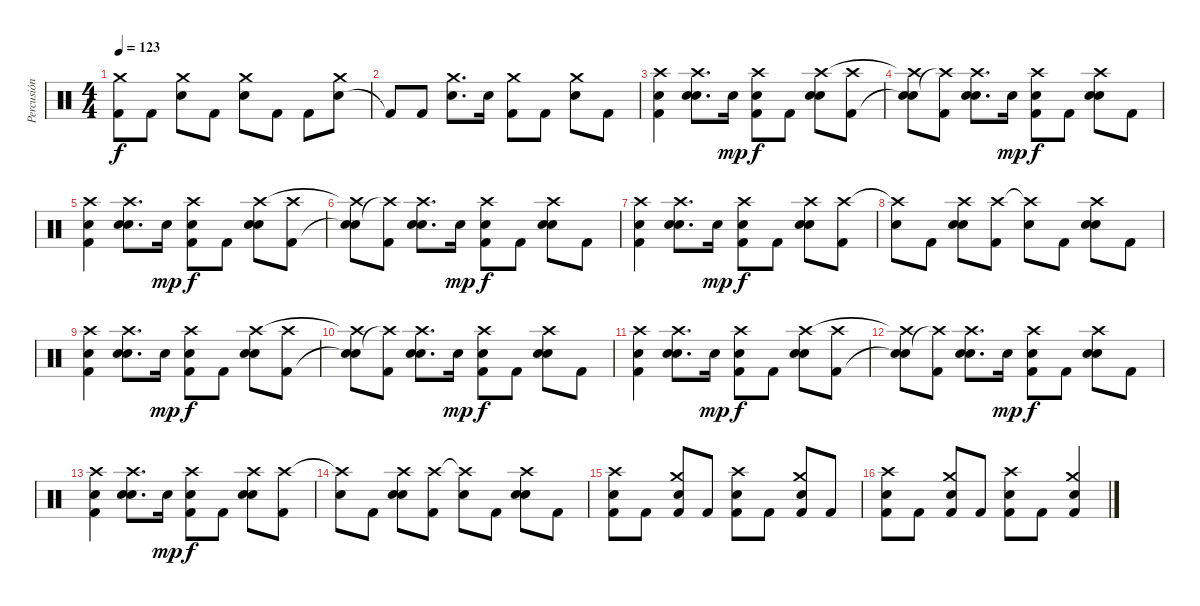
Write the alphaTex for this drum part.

\track ("Percusión" "Percusión") {instrument percussion}
\staff {score}
\articulation defaults
\ts (4 4)
\tempo 123
\clef neutral
\ks c
("Kick (hit) 2" "Crash medium (hit)").8{dy f} "Kick (hit) 2".8 ("Snare (hit) 2" "Crash medium (hit)").8 "Kick (hit) 2".8 ("Snare (hit) 2" "Crash medium (hit)").8 "Kick (hit) 2".8 "Kick (hit) 2".8 ("Snare (hit) 2" "Crash medium (hit)").8 |
"Kick (hit) 2"{t}.8 "Kick (hit) 2".8 ("Snare (hit) 2" "Crash medium (hit)").8{d} "Snare (hit) 2".16 ("Kick (hit) 2" "Crash medium (hit)").8 "Kick (hit) 2".8 ("Snare (hit) 2" "Crash medium (hit)").8 "Kick (hit) 2".8 |
("Metronome (bell)" "Kick (hit) 2" "Crash high (hit)").4 ("Snare (hit) 2" "Metronome (bell)" "Crash high (hit)").8{d} "Snare (hit) 2".16{dy mp} ("Metronome (bell)" "Kick (hit) 2" "Crash high (hit)").8{dy f} "Kick (hit) 2".8 ("Snare (hit) 2" "Metronome (bell)" "Crash high (hit)").8 ("Kick (hit) 2" "Crash high (hit)").8 |
("Metronome (bell)"{t} "Metronome (bell)" "Crash high (hit)"{t}).8 ("Kick (hit) 2" "Crash high (hit)"{t}).8 ("Snare (hit) 2" "Metronome (bell)" "Crash high (hit)").8{d} "Snare (hit) 2".16{dy mp} ("Metronome (bell)" "Kick (hit) 2" "Crash high (hit)").8{dy f} "Kick (hit) 2".8 ("Snare (hit) 2" "Metronome (bell)" "Crash high (hit)").8 "Kick (hit) 2".8 |
("Metronome (bell)" "Kick (hit) 2" "Crash high (hit)").4 ("Snare (hit) 2" "Metronome (bell)" "Crash high (hit)").8{d} "Snare (hit) 2".16{dy mp} ("Metronome (bell)" "Kick (hit) 2" "Crash high (hit)").8{dy f} "Kick (hit) 2".8 ("Snare (hit) 2" "Metronome (bell)" "Crash high (hit)").8 ("Kick (hit) 2" "Crash high (hit)").8 |
("Metronome (bell)"{t} "Metronome (bell)" "Crash high (hit)"{t}).8 ("Kick (hit) 2" "Crash high (hit)"{t}).8 ("Snare (hit) 2" "Metronome (bell)" "Crash high (hit)").8{d} "Snare (hit) 2".16{dy mp} ("Metronome (bell)" "Kick (hit) 2" "Crash high (hit)").8{dy f} "Kick (hit) 2".8 ("Snare (hit) 2" "Metronome (bell)" "Crash high (hit)").8 "Kick (hit) 2".8 |
("Metronome (bell)" "Kick (hit) 2" "Crash high (hit)").4 ("Snare (hit) 2" "Metronome (bell)" "Crash high (hit)").8{d} "Snare (hit) 2".16{dy mp} ("Metronome (bell)" "Kick (hit) 2" "Crash high (hit)").8{dy f} "Kick (hit) 2".8 ("Snare (hit) 2" "Metronome (bell)" "Crash high (hit)").8 ("Kick (hit) 2" "Crash high (hit)").8 |
("Metronome (bell)" "Crash high (hit)"{t}).8 "Kick (hit) 2".8 ("Snare (hit) 2" "Metronome (bell)" "Crash high (hit)").8 ("Kick (hit) 2" "Crash high (hit)").8 ("Metronome (bell)" "Crash high (hit)"{t}).8 "Kick (hit) 2".8 ("Snare (hit) 2" "Metronome (bell)" "Crash high (hit)").8 "Kick (hit) 2".8 |
("Metronome (bell)" "Kick (hit) 2" "Crash high (hit)").4 ("Snare (hit) 2" "Metronome (bell)" "Crash high (hit)").8{d} "Snare (hit) 2".16{dy mp} ("Metronome (bell)" "Kick (hit) 2" "Crash high (hit)").8{dy f} "Kick (hit) 2".8 ("Snare (hit) 2" "Metronome (bell)" "Crash high (hit)").8 ("Kick (hit) 2" "Crash high (hit)").8 |
("Metronome (bell)"{t} "Metronome (bell)" "Crash high (hit)"{t}).8 ("Kick (hit) 2" "Crash high (hit)"{t}).8 ("Snare (hit) 2" "Metronome (bell)" "Crash high (hit)").8{d} "Snare (hit) 2".16{dy mp} ("Metronome (bell)" "Kick (hit) 2" "Crash high (hit)").8{dy f} "Kick (hit) 2".8 ("Snare (hit) 2" "Metronome (bell)" "Crash high (hit)").8 "Kick (hit) 2".8 |
("Metronome (bell)" "Kick (hit) 2" "Crash high (hit)").4 ("Snare (hit) 2" "Metronome (bell)" "Crash high (hit)").8{d} "Snare (hit) 2".16{dy mp} ("Metronome (bell)" "Kick (hit) 2" "Crash high (hit)").8{dy f} "Kick (hit) 2".8 ("Snare (hit) 2" "Metronome (bell)" "Crash high (hit)").8 ("Kick (hit) 2" "Crash high (hit)").8 |
("Metronome (bell)"{t} "Metronome (bell)" "Crash high (hit)"{t}).8 ("Kick (hit) 2" "Crash high (hit)"{t}).8 ("Snare (hit) 2" "Metronome (bell)" "Crash high (hit)").8{d} "Snare (hit) 2".16{dy mp} ("Metronome (bell)" "Kick (hit) 2" "Crash high (hit)").8{dy f} "Kick (hit) 2".8 ("Snare (hit) 2" "Metronome (bell)" "Crash high (hit)").8 "Kick (hit) 2".8 |
("Metronome (bell)" "Kick (hit) 2" "Crash high (hit)").4 ("Snare (hit) 2" "Metronome (bell)" "Crash high (hit)").8{d} "Snare (hit) 2".16{dy mp} ("Metronome (bell)" "Kick (hit) 2" "Crash high (hit)").8{dy f} "Kick (hit) 2".8 ("Snare (hit) 2" "Metronome (bell)" "Crash high (hit)").8 ("Kick (hit) 2" "Crash high (hit)").8 |
("Metronome (bell)" "Crash high (hit)"{t}).8 "Kick (hit) 2".8 ("Snare (hit) 2" "Metronome (bell)" "Crash high (hit)").8 ("Kick (hit) 2" "Crash high (hit)").8 ("Metronome (bell)" "Crash high (hit)"{t}).8 "Kick (hit) 2".8 ("Snare (hit) 2" "Metronome (bell)" "Crash high (hit)").8 "Kick (hit) 2".8 |
("Snare (hit) 2" "Kick (hit) 2" "Crash high (hit)").8 "Kick (hit) 2".8 ("Snare (hit) 2" "Kick (hit) 2" "Crash medium (hit)").8 "Kick (hit) 2".8 ("Snare (hit) 2" "Kick (hit) 2" "Crash high (hit)").8 "Kick (hit) 2".8 ("Snare (hit) 2" "Kick (hit) 2" "Crash medium (hit)").8 "Kick (hit) 2".8 |
("Snare (hit) 2" "Kick (hit) 2" "Crash high (hit)").8 "Kick (hit) 2".8 ("Snare (hit) 2" "Kick (hit) 2" "Crash medium (hit)").8 "Kick (hit) 2".8 ("Snare (hit) 2" "Kick (hit) 2" "Crash high (hit)").8 "Kick (hit) 2".8 ("Snare (hit) 2" "Kick (hit) 2" "Crash medium (hit)").4
